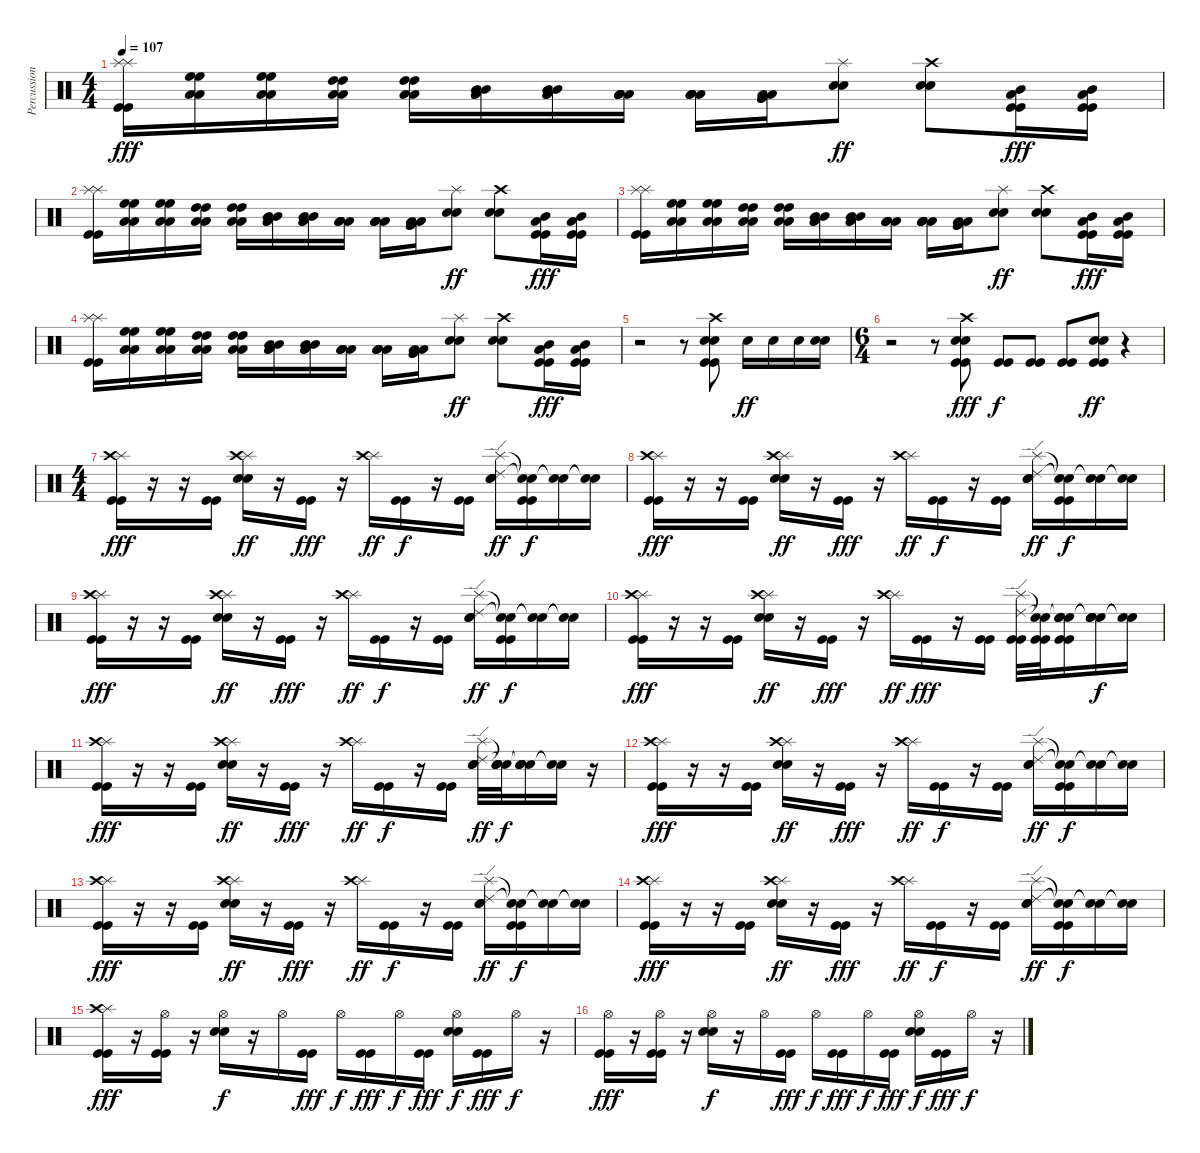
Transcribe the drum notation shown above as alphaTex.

\track ("Percussions" "Percussion") {instrument percussion}
\staff {score}
\articulation defaults
\ts (4 4)
\tempo 107
\clef neutral
\ks c
("Splash (hit)" "Splash (hit)" "Kick (hit)" "Kick (hit)").16{dy fff} ("High Floor Tom (hit)" "High Floor Tom (hit)" "Low Floor Tom (hit)" "Low Floor Tom (hit)").16 ("High Floor Tom (hit)" "High Floor Tom (hit)" "Low Floor Tom (hit)" "Low Floor Tom (hit)").16 ("High Tom (hit)" "High Tom (hit)" "Low Floor Tom (hit)" "Low Floor Tom (hit)").16 ("High Tom (hit)" "High Tom (hit)" "Low Floor Tom (hit)" "Low Floor Tom (hit)").16 ("Mid Tom (hit)" "Mid Tom (hit)" "Low Floor Tom (hit)" "Low Floor Tom (hit)").16 ("Mid Tom (hit)" "Mid Tom (hit)" "Low Floor Tom (hit)" "Low Floor Tom (hit)").16 ("Low Tom (hit)" "Low Tom (hit)" "Low Floor Tom (hit)" "Low Floor Tom (hit)").16 ("Low Tom (hit)" "Low Tom (hit)" "Low Floor Tom (hit)" "Low Floor Tom (hit)").16 ("Very Low Tom (hit)" "Very Low Tom (hit)" "Low Floor Tom (hit)" "Low Floor Tom (hit)").16 ("Splash (hit)" "Electric Snare (hit)" "Electric Snare (hit)").8{dy ff} ("Crash high (hit)" "Electric Snare (hit)" "Electric Snare (hit)").8 ("Mid Tom (hit)" "Low Floor Tom (hit)" "Kick (hit)" "Kick (hit)").16{dy fff} ("Mid Tom (hit)" "Low Floor Tom (hit)" "Kick (hit)" "Kick (hit)").16 |
("Splash (hit)" "Splash (hit)" "Kick (hit)" "Kick (hit)").16 ("High Floor Tom (hit)" "High Floor Tom (hit)" "Low Floor Tom (hit)" "Low Floor Tom (hit)").16 ("High Floor Tom (hit)" "High Floor Tom (hit)" "Low Floor Tom (hit)" "Low Floor Tom (hit)").16 ("High Tom (hit)" "High Tom (hit)" "Low Floor Tom (hit)" "Low Floor Tom (hit)").16 ("High Tom (hit)" "High Tom (hit)" "Low Floor Tom (hit)" "Low Floor Tom (hit)").16 ("Mid Tom (hit)" "Mid Tom (hit)" "Low Floor Tom (hit)" "Low Floor Tom (hit)").16 ("Mid Tom (hit)" "Mid Tom (hit)" "Low Floor Tom (hit)" "Low Floor Tom (hit)").16 ("Low Tom (hit)" "Low Tom (hit)" "Low Floor Tom (hit)" "Low Floor Tom (hit)").16 ("Low Tom (hit)" "Low Tom (hit)" "Low Floor Tom (hit)" "Low Floor Tom (hit)").16 ("Very Low Tom (hit)" "Very Low Tom (hit)" "Low Floor Tom (hit)" "Low Floor Tom (hit)").16 ("Splash (hit)" "Electric Snare (hit)" "Electric Snare (hit)").8{dy ff} ("Crash high (hit)" "Electric Snare (hit)" "Electric Snare (hit)").8 ("Mid Tom (hit)" "Low Floor Tom (hit)" "Kick (hit)" "Kick (hit)").16{dy fff} ("Mid Tom (hit)" "Low Floor Tom (hit)" "Kick (hit)" "Kick (hit)").16 |
("Splash (hit)" "Splash (hit)" "Kick (hit)" "Kick (hit)").16 ("High Floor Tom (hit)" "High Floor Tom (hit)" "Low Floor Tom (hit)" "Low Floor Tom (hit)").16 ("High Floor Tom (hit)" "High Floor Tom (hit)" "Low Floor Tom (hit)" "Low Floor Tom (hit)").16 ("High Tom (hit)" "High Tom (hit)" "Low Floor Tom (hit)" "Low Floor Tom (hit)").16 ("High Tom (hit)" "High Tom (hit)" "Low Floor Tom (hit)" "Low Floor Tom (hit)").16 ("Mid Tom (hit)" "Mid Tom (hit)" "Low Floor Tom (hit)" "Low Floor Tom (hit)").16 ("Mid Tom (hit)" "Mid Tom (hit)" "Low Floor Tom (hit)" "Low Floor Tom (hit)").16 ("Low Tom (hit)" "Low Tom (hit)" "Low Floor Tom (hit)" "Low Floor Tom (hit)").16 ("Low Tom (hit)" "Low Tom (hit)" "Low Floor Tom (hit)" "Low Floor Tom (hit)").16 ("Very Low Tom (hit)" "Very Low Tom (hit)" "Low Floor Tom (hit)" "Low Floor Tom (hit)").16 ("Splash (hit)" "Electric Snare (hit)" "Electric Snare (hit)").8{dy ff} ("Crash high (hit)" "Electric Snare (hit)" "Electric Snare (hit)").8 ("Mid Tom (hit)" "Low Floor Tom (hit)" "Kick (hit)" "Kick (hit)").16{dy fff} ("Mid Tom (hit)" "Low Floor Tom (hit)" "Kick (hit)" "Kick (hit)").16 |
("Splash (hit)" "Splash (hit)" "Kick (hit)" "Kick (hit)").16 ("High Floor Tom (hit)" "High Floor Tom (hit)" "Low Floor Tom (hit)" "Low Floor Tom (hit)").16 ("High Floor Tom (hit)" "High Floor Tom (hit)" "Low Floor Tom (hit)" "Low Floor Tom (hit)").16 ("High Tom (hit)" "High Tom (hit)" "Low Floor Tom (hit)" "Low Floor Tom (hit)").16 ("High Tom (hit)" "High Tom (hit)" "Low Floor Tom (hit)" "Low Floor Tom (hit)").16 ("Mid Tom (hit)" "Mid Tom (hit)" "Low Floor Tom (hit)" "Low Floor Tom (hit)").16 ("Mid Tom (hit)" "Mid Tom (hit)" "Low Floor Tom (hit)" "Low Floor Tom (hit)").16 ("Low Tom (hit)" "Low Tom (hit)" "Low Floor Tom (hit)" "Low Floor Tom (hit)").16 ("Low Tom (hit)" "Low Tom (hit)" "Low Floor Tom (hit)" "Low Floor Tom (hit)").16 ("Very Low Tom (hit)" "Very Low Tom (hit)" "Low Floor Tom (hit)" "Low Floor Tom (hit)").16 ("Splash (hit)" "Electric Snare (hit)" "Electric Snare (hit)").8{dy ff} ("Crash high (hit)" "Electric Snare (hit)" "Electric Snare (hit)").8 ("Mid Tom (hit)" "Low Floor Tom (hit)" "Kick (hit)" "Kick (hit)").16{dy fff} ("Mid Tom (hit)" "Low Floor Tom (hit)" "Kick (hit)" "Kick (hit)").16 |
r.2 r.8 ("Crash high (hit)" "Electric Snare (hit)" "Electric Snare (hit)" "Kick (hit)" "Kick (hit)").8 "Electric Snare (hit)".16{dy ff} "Electric Snare (hit)".16 "Electric Snare (hit)".16 ("Electric Snare (hit)" "Electric Snare (hit)").16 |
\ts (6 4)
r.2 r.8 ("Crash high (hit)" "Electric Snare (hit)" "Electric Snare (hit)" "Kick (hit)" "Kick (hit)").8{dy fff} ("Kick (hit)" "Kick (hit)").8{dy f} ("Kick (hit)" "Kick (hit)").8 ("Kick (hit)" "Kick (hit)").8 ("Electric Snare (hit)" "Electric Snare (hit)" "Kick (hit)" "Kick (hit)").8{dy ff} r.4 |
\ts (4 4)
("Splash (hit)" "Crash high (hit)" "Kick (hit)" "Kick (hit)").16{dy fff} r.16 r.16 ("Kick (hit)" "Kick (hit)").16 ("Splash (hit)" "Crash high (hit)" "Electric Snare (hit)" "Electric Snare (hit)").16{dy ff} r.16 ("Kick (hit)" "Kick (hit)").16{dy fff} r.16 ("Splash (hit)" "Crash high (hit)").16{dy ff} ("Kick (hit)" "Kick (hit)").16{dy f} r.16 ("Kick (hit)" "Kick (hit)").16 ("Splash (hit)" "Ride (edge) 2" "Electric Snare (hit)" "Electric Snare (hit)").16{dy ff} ("Snare (hit)"{t} "Snare (hit)"{t} "Kick (hit)" "Kick (hit)").16{dy f} ("Snare (hit)"{t} "Snare (hit)"{t}).16 ("Snare (hit)"{t} "Snare (hit)"{t}).16 |
("Splash (hit)" "Crash high (hit)" "Kick (hit)" "Kick (hit)").16{dy fff} r.16 r.16 ("Kick (hit)" "Kick (hit)").16 ("Splash (hit)" "Crash high (hit)" "Electric Snare (hit)" "Electric Snare (hit)").16{dy ff} r.16 ("Kick (hit)" "Kick (hit)").16{dy fff} r.16 ("Splash (hit)" "Crash high (hit)").16{dy ff} ("Kick (hit)" "Kick (hit)").16{dy f} r.16 ("Kick (hit)" "Kick (hit)").16 ("Splash (hit)" "Ride (edge) 2" "Electric Snare (hit)" "Electric Snare (hit)").16{dy ff} ("Snare (hit)"{t} "Snare (hit)"{t} "Kick (hit)" "Kick (hit)").16{dy f} ("Snare (hit)"{t} "Snare (hit)"{t}).16 ("Snare (hit)"{t} "Snare (hit)"{t}).16 |
("Splash (hit)" "Crash high (hit)" "Kick (hit)" "Kick (hit)").16{dy fff} r.16 r.16 ("Kick (hit)" "Kick (hit)").16 ("Splash (hit)" "Crash high (hit)" "Electric Snare (hit)" "Electric Snare (hit)").16{dy ff} r.16 ("Kick (hit)" "Kick (hit)").16{dy fff} r.16 ("Splash (hit)" "Crash high (hit)").16{dy ff} ("Kick (hit)" "Kick (hit)").16{dy f} r.16 ("Kick (hit)" "Kick (hit)").16 ("Splash (hit)" "Ride (edge) 2" "Electric Snare (hit)" "Electric Snare (hit)").16{dy ff} ("Snare (hit)"{t} "Snare (hit)"{t} "Kick (hit)" "Kick (hit)").16{dy f} ("Snare (hit)"{t} "Snare (hit)"{t}).16 ("Snare (hit)"{t} "Snare (hit)"{t}).16 |
("Splash (hit)" "Crash high (hit)" "Kick (hit)" "Kick (hit)").16{dy fff} r.16 r.16 ("Kick (hit)" "Kick (hit)").16 ("Splash (hit)" "Crash high (hit)" "Electric Snare (hit)" "Electric Snare (hit)").16{dy ff} r.16 ("Kick (hit)" "Kick (hit)").16{dy fff} r.16 ("Splash (hit)" "Crash high (hit)").16{dy ff} ("Kick (hit)" "Kick (hit)").16{dy fff} r.16 ("Kick (hit)" "Kick (hit)").16 ("Splash (hit)" "Ride (edge) 2" "Kick (hit)" "Kick (hit)").32 ("Snare (hit)"{t} "Snare (hit)"{t} "Kick (hit)" "Kick (hit)").32 ("Snare (hit)"{t} "Snare (hit)"{t} "Electric Snare (hit)" "Electric Snare (hit)" "Kick (hit)" "Kick (hit)").16 ("Snare (hit)"{t} "Snare (hit)"{t} "Electric Snare (hit)" "Electric Snare (hit)").16{dy f} ("Snare (hit)"{t} "Snare (hit)"{t}).16 |
("Splash (hit)" "Crash high (hit)" "Kick (hit)" "Kick (hit)").16{dy fff} r.16 r.16 ("Kick (hit)" "Kick (hit)").16 ("Splash (hit)" "Crash high (hit)" "Electric Snare (hit)" "Electric Snare (hit)").16{dy ff} r.16 ("Kick (hit)" "Kick (hit)").16{dy fff} r.16 ("Splash (hit)" "Crash high (hit)").16{dy ff} ("Kick (hit)" "Kick (hit)").16{dy f} r.16 ("Kick (hit)" "Kick (hit)").16 ("Splash (hit)" "Ride (edge) 2" "Electric Snare (hit)" "Electric Snare (hit)").32{dy ff} ("Snare (hit)"{t} "Snare (hit)"{t} "Electric Snare (hit)" "Electric Snare (hit)").32{dy f} ("Snare (hit)"{t} "Snare (hit)"{t} "Electric Snare (hit)" "Electric Snare (hit)").16 ("Snare (hit)"{t} "Snare (hit)"{t}).16 r.16 |
("Splash (hit)" "Crash high (hit)" "Kick (hit)" "Kick (hit)").16{dy fff} r.16 r.16 ("Kick (hit)" "Kick (hit)").16 ("Splash (hit)" "Crash high (hit)" "Electric Snare (hit)" "Electric Snare (hit)").16{dy ff} r.16 ("Kick (hit)" "Kick (hit)").16{dy fff} r.16 ("Splash (hit)" "Crash high (hit)").16{dy ff} ("Kick (hit)" "Kick (hit)").16{dy f} r.16 ("Kick (hit)" "Kick (hit)").16 ("Splash (hit)" "Ride (edge) 2" "Electric Snare (hit)" "Electric Snare (hit)").16{dy ff} ("Snare (hit)"{t} "Snare (hit)"{t} "Kick (hit)" "Kick (hit)").16{dy f} ("Snare (hit)"{t} "Snare (hit)"{t}).16 ("Snare (hit)"{t} "Snare (hit)"{t}).16 |
("Splash (hit)" "Crash high (hit)" "Kick (hit)" "Kick (hit)").16{dy fff} r.16 r.16 ("Kick (hit)" "Kick (hit)").16 ("Splash (hit)" "Crash high (hit)" "Electric Snare (hit)" "Electric Snare (hit)").16{dy ff} r.16 ("Kick (hit)" "Kick (hit)").16{dy fff} r.16 ("Splash (hit)" "Crash high (hit)").16{dy ff} ("Kick (hit)" "Kick (hit)").16{dy f} r.16 ("Kick (hit)" "Kick (hit)").16 ("Splash (hit)" "Ride (edge) 2" "Electric Snare (hit)" "Electric Snare (hit)").16{dy ff} ("Snare (hit)"{t} "Snare (hit)"{t} "Kick (hit)" "Kick (hit)").16{dy f} ("Snare (hit)"{t} "Snare (hit)"{t}).16 ("Snare (hit)"{t} "Snare (hit)"{t}).16 |
("Splash (hit)" "Crash high (hit)" "Kick (hit)" "Kick (hit)").16{dy fff} r.16 r.16 ("Kick (hit)" "Kick (hit)").16 ("Splash (hit)" "Crash high (hit)" "Electric Snare (hit)" "Electric Snare (hit)").16{dy ff} r.16 ("Kick (hit)" "Kick (hit)").16{dy fff} r.16 ("Splash (hit)" "Crash high (hit)").16{dy ff} ("Kick (hit)" "Kick (hit)").16{dy f} r.16 ("Kick (hit)" "Kick (hit)").16 ("Splash (hit)" "Ride (edge) 2" "Electric Snare (hit)" "Electric Snare (hit)").16{dy ff} ("Snare (hit)"{t} "Snare (hit)"{t} "Kick (hit)" "Kick (hit)").16{dy f} ("Snare (hit)"{t} "Snare (hit)"{t}).16 ("Snare (hit)"{t} "Snare (hit)"{t}).16 |
("Splash (hit)" "Crash high (hit)" "Kick (hit)" "Kick (hit)").16{dy fff} r.16 ("Hi-Hat (open)" "Kick (hit)" "Kick (hit)").16 r.16 ("Hi-Hat (open)" "Electric Snare (hit)" "Electric Snare (hit)").16{dy f} r.16 "Hi-Hat (open)".16 ("Kick (hit)" "Kick (hit)").16{dy fff} "Hi-Hat (open)".16{dy f} ("Kick (hit)" "Kick (hit)").16{dy fff} "Hi-Hat (open)".16{dy f} ("Kick (hit)" "Kick (hit)").16{dy fff} ("Hi-Hat (open)" "Electric Snare (hit)" "Electric Snare (hit)").16{dy f} ("Kick (hit)" "Kick (hit)").16{dy fff} "Hi-Hat (open)".16{dy f} r.16 |
("Hi-Hat (open)" "Kick (hit)" "Kick (hit)").16{dy fff} r.16 ("Hi-Hat (open)" "Kick (hit)" "Kick (hit)").16 r.16 ("Hi-Hat (open)" "Electric Snare (hit)" "Electric Snare (hit)").16{dy f} r.16 "Hi-Hat (open)".16 ("Kick (hit)" "Kick (hit)").16{dy fff} "Hi-Hat (open)".16{dy f} ("Kick (hit)" "Kick (hit)").16{dy fff} "Hi-Hat (open)".16{dy f} ("Kick (hit)" "Kick (hit)").16{dy fff} ("Hi-Hat (open)" "Electric Snare (hit)" "Electric Snare (hit)").16{dy f} ("Kick (hit)" "Kick (hit)").16{dy fff} "Hi-Hat (open)".16{dy f} r.16
